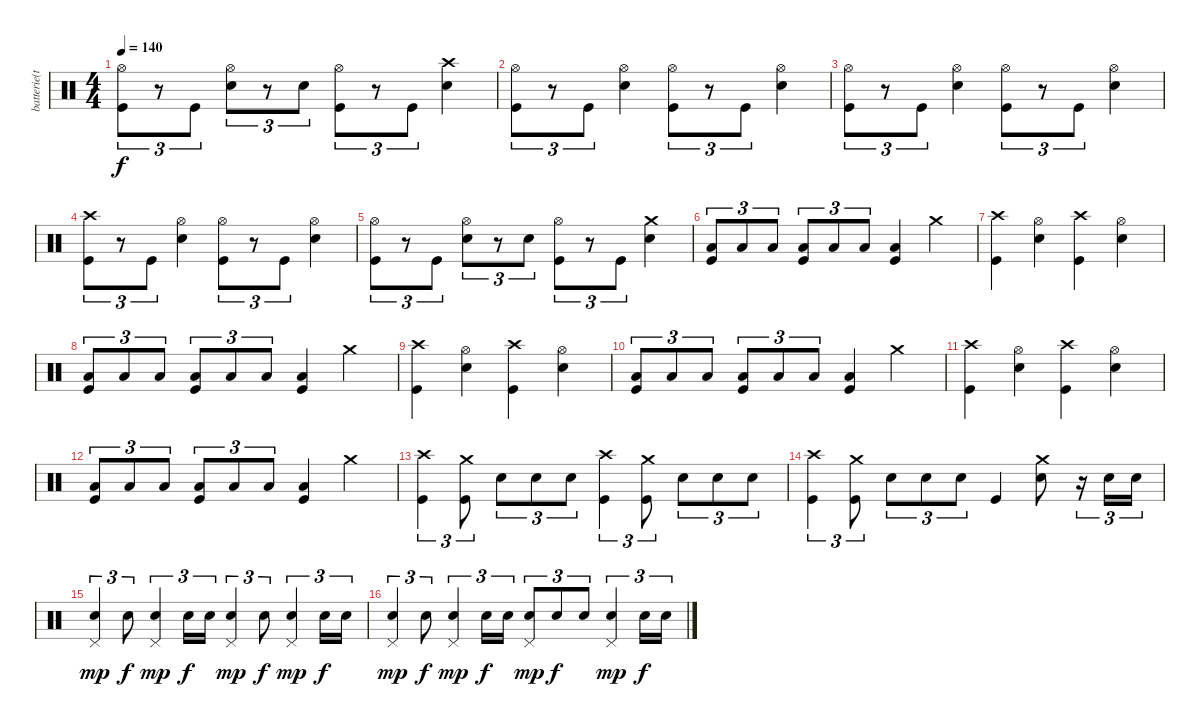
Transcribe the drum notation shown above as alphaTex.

\track ("batterie(tré)" "batterie(t") {instrument percussion}
\staff {score}
\articulation defaults
\ts (4 4)
\tempo 140
\clef neutral
\ks c
("Hi-Hat (open)" "Kick (hit)").8{tu (3 2) dy f} r.8{tu (3 2)} "Kick (hit)".8{tu (3 2)} ("Hi-Hat (open)" "Electric Snare (hit)").8{tu (3 2)} r.8{tu (3 2)} "Electric Snare (hit)".8{tu (3 2)} ("Hi-Hat (open)" "Kick (hit)").8{tu (3 2)} r.8{tu (3 2)} "Kick (hit)".8{tu (3 2)} ("Crash high (hit)" "Electric Snare (hit)").4 |
("Hi-Hat (open)" "Kick (hit)").8{tu (3 2)} r.8{tu (3 2)} "Kick (hit)".8{tu (3 2)} ("Hi-Hat (open)" "Electric Snare (hit)").4 ("Hi-Hat (open)" "Kick (hit)").8{tu (3 2)} r.8{tu (3 2)} "Kick (hit)".8{tu (3 2)} ("Hi-Hat (open)" "Electric Snare (hit)").4 |
("Hi-Hat (open)" "Kick (hit)").8{tu (3 2)} r.8{tu (3 2)} "Kick (hit)".8{tu (3 2)} ("Hi-Hat (open)" "Electric Snare (hit)").4 ("Hi-Hat (open)" "Kick (hit)").8{tu (3 2)} r.8{tu (3 2)} "Kick (hit)".8{tu (3 2)} ("Hi-Hat (open)" "Electric Snare (hit)").4 |
("Crash high (hit)" "Kick (hit)").8{tu (3 2)} r.8{tu (3 2)} "Kick (hit)".8{tu (3 2)} ("Hi-Hat (open)" "Electric Snare (hit)").4 ("Hi-Hat (open)" "Kick (hit)").8{tu (3 2)} r.8{tu (3 2)} "Kick (hit)".8{tu (3 2)} ("Hi-Hat (open)" "Electric Snare (hit)").4 |
("Hi-Hat (open)" "Kick (hit)").8{tu (3 2)} r.8{tu (3 2)} "Kick (hit)".8{tu (3 2)} ("Hi-Hat (open)" "Electric Snare (hit)").8{tu (3 2)} r.8{tu (3 2)} "Electric Snare (hit)".8{tu (3 2)} ("Hi-Hat (open)" "Kick (hit)").8{tu (3 2)} r.8{tu (3 2)} "Kick (hit)".8{tu (3 2)} ("Crash medium (hit)" "Electric Snare (hit)").4 |
("Low Floor Tom (hit)" "Kick (hit)").8{tu (3 2)} "Low Floor Tom (hit)".8{tu (3 2)} "Low Floor Tom (hit)".8{tu (3 2)} ("Low Floor Tom (hit)" "Kick (hit)").8{tu (3 2)} "Low Floor Tom (hit)".8{tu (3 2)} "Low Floor Tom (hit)".8{tu (3 2)} ("Low Floor Tom (hit)" "Kick (hit)").4 "Crash medium (hit)".4 |
("Crash high (hit)" "Kick (hit)").4 ("Hi-Hat (open)" "Electric Snare (hit)").4 ("Crash high (hit)" "Kick (hit)").4 ("Hi-Hat (open)" "Electric Snare (hit)").4 |
("Low Floor Tom (hit)" "Kick (hit)").8{tu (3 2)} "Low Floor Tom (hit)".8{tu (3 2)} "Low Floor Tom (hit)".8{tu (3 2)} ("Low Floor Tom (hit)" "Kick (hit)").8{tu (3 2)} "Low Floor Tom (hit)".8{tu (3 2)} "Low Floor Tom (hit)".8{tu (3 2)} ("Low Floor Tom (hit)" "Kick (hit)").4 "Crash medium (hit)".4 |
("Crash high (hit)" "Kick (hit)").4 ("Hi-Hat (open)" "Electric Snare (hit)").4 ("Crash high (hit)" "Kick (hit)").4 ("Hi-Hat (open)" "Electric Snare (hit)").4 |
("Low Floor Tom (hit)" "Kick (hit)").8{tu (3 2)} "Low Floor Tom (hit)".8{tu (3 2)} "Low Floor Tom (hit)".8{tu (3 2)} ("Low Floor Tom (hit)" "Kick (hit)").8{tu (3 2)} "Low Floor Tom (hit)".8{tu (3 2)} "Low Floor Tom (hit)".8{tu (3 2)} ("Low Floor Tom (hit)" "Kick (hit)").4 "Crash medium (hit)".4 |
("Crash high (hit)" "Kick (hit)").4 ("Hi-Hat (open)" "Electric Snare (hit)").4 ("Crash high (hit)" "Kick (hit)").4 ("Hi-Hat (open)" "Electric Snare (hit)").4 |
("Low Floor Tom (hit)" "Kick (hit)").8{tu (3 2)} "Low Floor Tom (hit)".8{tu (3 2)} "Low Floor Tom (hit)".8{tu (3 2)} ("Low Floor Tom (hit)" "Kick (hit)").8{tu (3 2)} "Low Floor Tom (hit)".8{tu (3 2)} "Low Floor Tom (hit)".8{tu (3 2)} ("Low Floor Tom (hit)" "Kick (hit)").4 "Crash medium (hit)".4 |
("Crash high (hit)" "Kick (hit)").4{tu (3 2)} ("Crash medium (hit)" "Kick (hit)").8{tu (3 2)} "Electric Snare (hit)".8{tu (3 2)} "Electric Snare (hit)".8{tu (3 2)} "Electric Snare (hit)".8{tu (3 2)} ("Crash high (hit)" "Kick (hit)").4{tu (3 2)} ("Crash medium (hit)" "Kick (hit)").8{tu (3 2)} "Electric Snare (hit)".8{tu (3 2)} "Electric Snare (hit)".8{tu (3 2)} "Electric Snare (hit)".8{tu (3 2)} |
("Crash high (hit)" "Kick (hit)").4{tu (3 2)} ("Crash medium (hit)" "Kick (hit)").8{tu (3 2)} "Electric Snare (hit)".8{tu (3 2)} "Electric Snare (hit)".8{tu (3 2)} "Electric Snare (hit)".8{tu (3 2)} "Kick (hit)".4 ("Crash medium (hit)" "Electric Snare (hit)").8 r.16{tu (3 2)} "Electric Snare (hit)".16{tu (3 2)} "Electric Snare (hit)".16{tu (3 2)} |
("Electric Snare (hit)" "Pedal Hi-Hat (hit)").4{tu (3 2) dy mp} "Electric Snare (hit)".8{tu (3 2) dy f} ("Electric Snare (hit)" "Pedal Hi-Hat (hit)").4{tu (3 2) dy mp} "Electric Snare (hit)".16{tu (3 2) dy f} "Electric Snare (hit)".16{tu (3 2)} ("Electric Snare (hit)" "Pedal Hi-Hat (hit)").4{tu (3 2) dy mp} "Electric Snare (hit)".8{tu (3 2) dy f} ("Electric Snare (hit)" "Pedal Hi-Hat (hit)").4{tu (3 2) dy mp} "Electric Snare (hit)".16{tu (3 2) dy f} "Electric Snare (hit)".16{tu (3 2)} |
("Electric Snare (hit)" "Pedal Hi-Hat (hit)").4{tu (3 2) dy mp} "Electric Snare (hit)".8{tu (3 2) dy f} ("Electric Snare (hit)" "Pedal Hi-Hat (hit)").4{tu (3 2) dy mp} "Electric Snare (hit)".16{tu (3 2) dy f} "Electric Snare (hit)".16{tu (3 2)} ("Electric Snare (hit)" "Pedal Hi-Hat (hit)").8{tu (3 2) dy mp} "Electric Snare (hit)".8{tu (3 2) dy f} "Electric Snare (hit)".8{tu (3 2)} ("Electric Snare (hit)" "Pedal Hi-Hat (hit)").4{tu (3 2) dy mp} "Electric Snare (hit)".16{tu (3 2) dy f} "Electric Snare (hit)".16{tu (3 2)}
